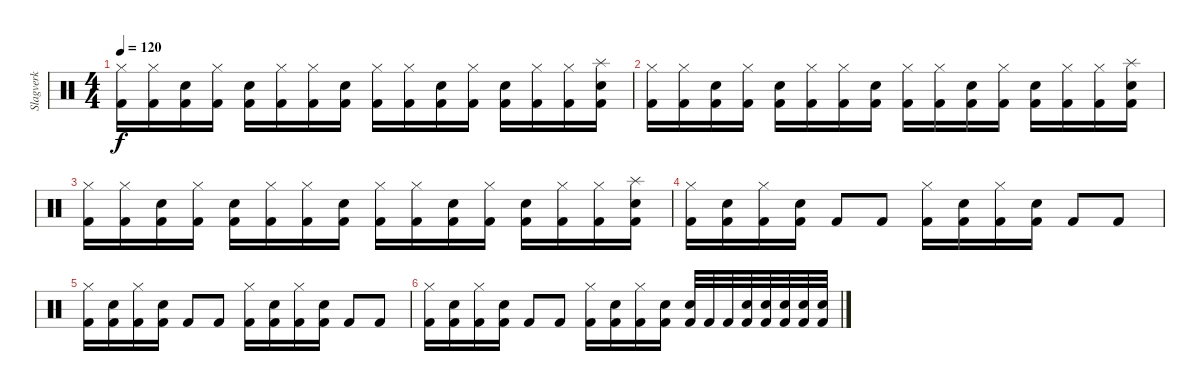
\track ("Slagverk" "Slagverk") {instrument percussion}
\staff {score}
\articulation defaults
\ts (4 4)
\tempo 120
\clef neutral
\ks c
("Kick (hit) 2" "Hi-Hat (closed)").16{dy f} ("Kick (hit) 2" "Hi-Hat (closed)").16 ("Kick (hit) 2" "Snare (hit) 2").16 ("Kick (hit) 2" "Hi-Hat (closed)").16 ("Kick (hit) 2" "Snare (hit) 2").16 ("Kick (hit) 2" "Hi-Hat (closed)").16 ("Kick (hit) 2" "Hi-Hat (closed)").16 ("Kick (hit) 2" "Snare (hit) 2").16 ("Kick (hit) 2" "Hi-Hat (closed)").16 ("Kick (hit) 2" "Hi-Hat (closed)").16 ("Kick (hit) 2" "Snare (hit) 2").16 ("Kick (hit) 2" "Hi-Hat (closed)").16 ("Kick (hit) 2" "Snare (hit) 2").16 ("Kick (hit) 2" "Hi-Hat (closed)").16 ("Kick (hit) 2" "Hi-Hat (closed)").16 ("Kick (hit) 2" "Splash (hit)" "Snare (hit) 2").16 |
("Kick (hit) 2" "Hi-Hat (closed)").16 ("Kick (hit) 2" "Hi-Hat (closed)").16 ("Kick (hit) 2" "Snare (hit) 2").16 ("Kick (hit) 2" "Hi-Hat (closed)").16 ("Kick (hit) 2" "Snare (hit) 2").16 ("Kick (hit) 2" "Hi-Hat (closed)").16 ("Kick (hit) 2" "Hi-Hat (closed)").16 ("Kick (hit) 2" "Snare (hit) 2").16 ("Kick (hit) 2" "Hi-Hat (closed)").16 ("Kick (hit) 2" "Hi-Hat (closed)").16 ("Kick (hit) 2" "Snare (hit) 2").16 ("Kick (hit) 2" "Hi-Hat (closed)").16 ("Kick (hit) 2" "Snare (hit) 2").16 ("Kick (hit) 2" "Hi-Hat (closed)").16 ("Kick (hit) 2" "Hi-Hat (closed)").16 ("Kick (hit) 2" "Splash (hit)" "Snare (hit) 2").16 |
("Kick (hit) 2" "Hi-Hat (closed)").16 ("Kick (hit) 2" "Hi-Hat (closed)").16 ("Kick (hit) 2" "Snare (hit) 2").16 ("Kick (hit) 2" "Hi-Hat (closed)").16 ("Kick (hit) 2" "Snare (hit) 2").16 ("Kick (hit) 2" "Hi-Hat (closed)").16 ("Kick (hit) 2" "Hi-Hat (closed)").16 ("Kick (hit) 2" "Snare (hit) 2").16 ("Kick (hit) 2" "Hi-Hat (closed)").16 ("Kick (hit) 2" "Hi-Hat (closed)").16 ("Kick (hit) 2" "Snare (hit) 2").16 ("Kick (hit) 2" "Hi-Hat (closed)").16 ("Kick (hit) 2" "Snare (hit) 2").16 ("Kick (hit) 2" "Hi-Hat (closed)").16 ("Kick (hit) 2" "Hi-Hat (closed)").16 ("Kick (hit) 2" "Splash (hit)" "Snare (hit) 2").16 |
("Kick (hit) 2" "Hi-Hat (closed)").16 ("Kick (hit) 2" "Snare (hit) 2").16 ("Kick (hit) 2" "Hi-Hat (closed)").16 ("Kick (hit) 2" "Snare (hit) 2").16 "Kick (hit) 2".8 "Kick (hit) 2".8 ("Kick (hit) 2" "Hi-Hat (closed)").16 ("Kick (hit) 2" "Snare (hit) 2").16 ("Kick (hit) 2" "Hi-Hat (closed)").16 ("Kick (hit) 2" "Snare (hit) 2").16 "Kick (hit) 2".8 "Kick (hit) 2".8 |
("Kick (hit) 2" "Hi-Hat (closed)").16 ("Kick (hit) 2" "Snare (hit) 2").16 ("Kick (hit) 2" "Hi-Hat (closed)").16 ("Kick (hit) 2" "Snare (hit) 2").16 "Kick (hit) 2".8 "Kick (hit) 2".8 ("Kick (hit) 2" "Hi-Hat (closed)").16 ("Kick (hit) 2" "Snare (hit) 2").16 ("Kick (hit) 2" "Hi-Hat (closed)").16 ("Kick (hit) 2" "Snare (hit) 2").16 "Kick (hit) 2".8 "Kick (hit) 2".8 |
("Kick (hit) 2" "Hi-Hat (closed)").16 ("Kick (hit) 2" "Snare (hit) 2").16 ("Kick (hit) 2" "Hi-Hat (closed)").16 ("Kick (hit) 2" "Snare (hit) 2").16 "Kick (hit) 2".8 "Kick (hit) 2".8 ("Kick (hit) 2" "Hi-Hat (closed)").16 ("Kick (hit) 2" "Snare (hit) 2").16 ("Kick (hit) 2" "Hi-Hat (closed)").16 ("Kick (hit) 2" "Snare (hit) 2").16 ("Kick (hit) 2" "Snare (hit) 2").32 "Kick (hit) 2".32 "Kick (hit) 2".32 ("Kick (hit) 2" "Snare (hit) 2").32 ("Kick (hit) 2" "Snare (hit) 2").32 ("Kick (hit) 2" "Snare (hit) 2").32 ("Kick (hit) 2" "Snare (hit) 2").32 ("Kick (hit) 2" "Snare (hit) 2").32
